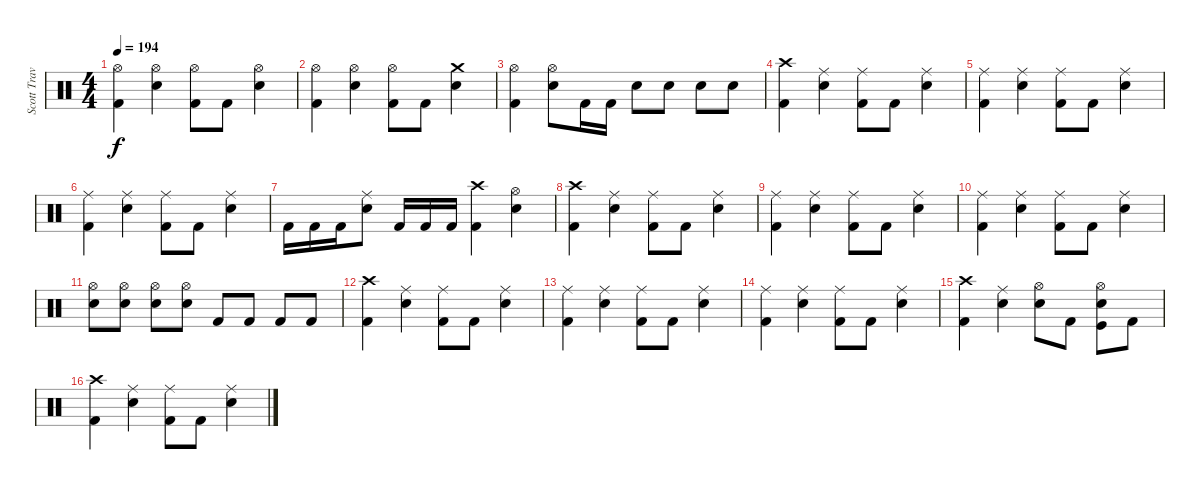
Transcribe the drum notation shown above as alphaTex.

\track ("Scott Travis" "Scott Trav") {instrument percussion}
\staff {score}
\articulation defaults
\ts (4 4)
\tempo 194
\clef neutral
\ks c
("Kick (hit) 2" "Hi-Hat (open)").4{dy f} ("Hi-Hat (open)" "Snare (hit) 2").4 ("Hi-Hat (open)" "Kick (hit) 2").8 "Kick (hit) 2".8 ("Snare (hit) 2" "Hi-Hat (open)").4 |
("Kick (hit) 2" "Hi-Hat (open)").4 ("Hi-Hat (open)" "Snare (hit) 2").4 ("Hi-Hat (open)" "Kick (hit) 2").8 "Kick (hit) 2".8 ("Snare (hit) 2" "Crash medium (hit)").4 |
("Kick (hit) 2" "Hi-Hat (open)").4 ("Hi-Hat (open)" "Snare (hit) 2").8 "Kick (hit) 2".16 "Kick (hit) 2".16 "Snare (hit) 2".8 "Snare (hit) 2".8 "Snare (hit) 2".8 "Snare (hit) 2".8 |
("Kick (hit) 2" "Crash high (hit)").4 ("Ride (middle)" "Snare (hit) 2").4 ("Ride (middle)" "Kick (hit) 2").8 "Kick (hit) 2".8 ("Snare (hit) 2" "Ride (middle)").4 |
("Kick (hit) 2" "Ride (middle)").4 ("Ride (middle)" "Snare (hit) 2").4 ("Ride (middle)" "Kick (hit) 2").8 "Kick (hit) 2".8 ("Snare (hit) 2" "Ride (middle)").4 |
("Kick (hit) 2" "Ride (middle)").4 ("Ride (middle)" "Snare (hit) 2").4 ("Ride (middle)" "Kick (hit) 2").8 "Kick (hit) 2".8 ("Snare (hit) 2" "Ride (middle)").4 |
"Kick (hit) 2".16 "Kick (hit) 2".16 "Kick (hit) 2".16 ("Ride (middle)" "Snare (hit) 2").8 "Kick (hit) 2".16 "Kick (hit) 2".16 "Kick (hit) 2".16 ("Crash high (hit)" "Kick (hit) 2").4 ("Hi-Hat (open)" "Snare (hit) 2").4 |
("Kick (hit) 2" "Crash high (hit)").4 ("Ride (middle)" "Snare (hit) 2").4 ("Ride (middle)" "Kick (hit) 2").8 "Kick (hit) 2".8 ("Snare (hit) 2" "Ride (middle)").4 |
("Kick (hit) 2" "Ride (middle)").4 ("Ride (middle)" "Snare (hit) 2").4 ("Ride (middle)" "Kick (hit) 2").8 "Kick (hit) 2".8 ("Snare (hit) 2" "Ride (middle)").4 |
("Kick (hit) 2" "Ride (middle)").4 ("Ride (middle)" "Snare (hit) 2").4 ("Ride (middle)" "Kick (hit) 2").8 "Kick (hit) 2".8 ("Snare (hit) 2" "Ride (middle)").4 |
("Hi-Hat (open)" "Snare (hit) 2").8 ("Hi-Hat (open)" "Snare (hit) 2").8 ("Hi-Hat (open)" "Snare (hit) 2").8 ("Hi-Hat (open)" "Snare (hit) 2").8 "Kick (hit) 2".8 "Kick (hit) 2".8 "Kick (hit) 2".8 "Kick (hit) 2".8 |
("Kick (hit) 2" "Crash high (hit)").4 ("Ride (middle)" "Snare (hit) 2").4 ("Ride (middle)" "Kick (hit) 2").8 "Kick (hit) 2".8 ("Snare (hit) 2" "Ride (middle)").4 |
("Kick (hit) 2" "Ride (middle)").4 ("Ride (middle)" "Snare (hit) 2").4 ("Ride (middle)" "Kick (hit) 2").8 "Kick (hit) 2".8 ("Snare (hit) 2" "Ride (middle)").4 |
("Kick (hit) 2" "Ride (middle)").4 ("Ride (middle)" "Snare (hit) 2").4 ("Ride (middle)" "Kick (hit) 2").8 "Kick (hit) 2".8 ("Snare (hit) 2" "Ride (middle)").4 |
("Kick (hit) 2" "Crash high (hit)").4 ("Ride (middle)" "Snare (hit) 2").4 ("Hi-Hat (open)" "Snare (hit) 2").8 "Kick (hit) 2".8 ("Hi-Hat (open)" "Snare (hit) 2" "Kick (hit)").8 "Kick (hit) 2".8 |
("Kick (hit) 2" "Crash high (hit)").4 ("Ride (middle)" "Snare (hit) 2").4 ("Ride (middle)" "Kick (hit) 2").8 "Kick (hit) 2".8 ("Snare (hit) 2" "Ride (middle)").4
